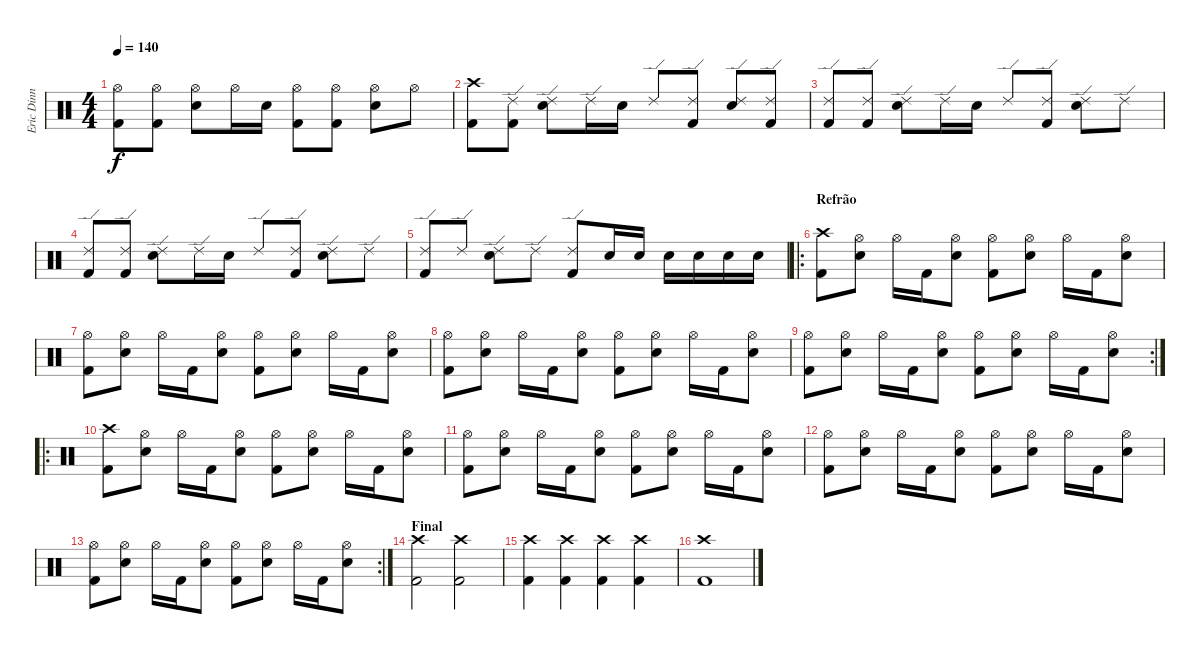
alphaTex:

\track ("Eric Dinn" "Eric Dinn") {instrument percussion}
\staff {score}
\articulation defaults
\ts (4 4)
\tempo 140
\clef neutral
\ks c
("Hi-Hat (open)" "Kick (hit) 2").8{dy f} ("Hi-Hat (open)" "Kick (hit) 2").8 ("Hi-Hat (open)" "Snare (hit) 2").8 "Hi-Hat (open)".16 "Snare (hit) 2".16 ("Hi-Hat (open)" "Kick (hit) 2").8 ("Hi-Hat (open)" "Kick (hit) 2").8 ("Hi-Hat (open)" "Snare (hit) 2").8 "Hi-Hat (open)".8 |
("Crash high (hit)" "Kick (hit) 2").8 ("Ride (edge) 2" "Kick (hit) 2").8 ("Ride (edge) 2" "Snare (hit) 2").8 "Ride (edge) 2".16 "Snare (hit) 2".16 "Ride (edge) 2".8 ("Ride (edge) 2" "Kick (hit) 2").8 ("Ride (edge) 2" "Snare (hit) 2").8 ("Ride (edge) 2" "Kick (hit) 2").8 |
("Ride (edge) 2" "Kick (hit) 2").8 ("Ride (edge) 2" "Kick (hit) 2").8 ("Ride (edge) 2" "Snare (hit) 2").8 "Ride (edge) 2".16 "Snare (hit) 2".16 "Ride (edge) 2".8 ("Ride (edge) 2" "Kick (hit) 2").8 ("Ride (edge) 2" "Snare (hit) 2").8 "Ride (edge) 2".8 |
("Ride (edge) 2" "Kick (hit) 2").8 ("Ride (edge) 2" "Kick (hit) 2").8 ("Ride (edge) 2" "Snare (hit) 2").8 "Ride (edge) 2".16 "Snare (hit) 2".16 "Ride (edge) 2".8 ("Ride (edge) 2" "Kick (hit) 2").8 ("Ride (edge) 2" "Snare (hit) 2").8 "Ride (edge) 2".8 |
("Ride (edge) 2" "Kick (hit) 2").8 "Ride (edge) 2".8 ("Ride (edge) 2" "Snare (hit) 2").8 "Ride (edge) 2".8 ("Ride (edge) 2" "Kick (hit) 2").8 "Snare (hit) 2".16 "Snare (hit) 2".16 "Snare (hit) 2".16 "Snare (hit) 2".16 "Snare (hit) 2".16 "Snare (hit) 2".16 |
\ro
\section ("" "Refrão")
("Crash high (hit)" "Kick (hit) 2").8 ("Hi-Hat (open)" "Snare (hit) 2").8 "Hi-Hat (open)".16 "Kick (hit) 2".16 ("Hi-Hat (open)" "Snare (hit) 2").8 ("Hi-Hat (open)" "Kick (hit) 2").8 ("Hi-Hat (open)" "Snare (hit) 2").8 "Hi-Hat (open)".16 "Kick (hit) 2".16 ("Hi-Hat (open)" "Snare (hit) 2").8 |
("Hi-Hat (open)" "Kick (hit) 2").8 ("Hi-Hat (open)" "Snare (hit) 2").8 "Hi-Hat (open)".16 "Kick (hit) 2".16 ("Hi-Hat (open)" "Snare (hit) 2").8 ("Hi-Hat (open)" "Kick (hit) 2").8 ("Hi-Hat (open)" "Snare (hit) 2").8 "Hi-Hat (open)".16 "Kick (hit) 2".16 ("Hi-Hat (open)" "Snare (hit) 2").8 |
("Hi-Hat (open)" "Kick (hit) 2").8 ("Hi-Hat (open)" "Snare (hit) 2").8 "Hi-Hat (open)".16 "Kick (hit) 2".16 ("Hi-Hat (open)" "Snare (hit) 2").8 ("Hi-Hat (open)" "Kick (hit) 2").8 ("Hi-Hat (open)" "Snare (hit) 2").8 "Hi-Hat (open)".16 "Kick (hit) 2".16 ("Hi-Hat (open)" "Snare (hit) 2").8 |
\rc 2
("Hi-Hat (open)" "Kick (hit) 2").8 ("Hi-Hat (open)" "Snare (hit) 2").8 "Hi-Hat (open)".16 "Kick (hit) 2".16 ("Hi-Hat (open)" "Snare (hit) 2").8 ("Hi-Hat (open)" "Kick (hit) 2").8 ("Hi-Hat (open)" "Snare (hit) 2").8 "Hi-Hat (open)".16 "Kick (hit) 2".16 ("Hi-Hat (open)" "Snare (hit) 2").8 |
\ro
("Crash high (hit)" "Kick (hit) 2").8 ("Hi-Hat (open)" "Snare (hit) 2").8 "Hi-Hat (open)".16 "Kick (hit) 2".16 ("Hi-Hat (open)" "Snare (hit) 2").8 ("Hi-Hat (open)" "Kick (hit) 2").8 ("Hi-Hat (open)" "Snare (hit) 2").8 "Hi-Hat (open)".16 "Kick (hit) 2".16 ("Hi-Hat (open)" "Snare (hit) 2").8 |
("Hi-Hat (open)" "Kick (hit) 2").8 ("Hi-Hat (open)" "Snare (hit) 2").8 "Hi-Hat (open)".16 "Kick (hit) 2".16 ("Hi-Hat (open)" "Snare (hit) 2").8 ("Hi-Hat (open)" "Kick (hit) 2").8 ("Hi-Hat (open)" "Snare (hit) 2").8 "Hi-Hat (open)".16 "Kick (hit) 2".16 ("Hi-Hat (open)" "Snare (hit) 2").8 |
("Hi-Hat (open)" "Kick (hit) 2").8 ("Hi-Hat (open)" "Snare (hit) 2").8 "Hi-Hat (open)".16 "Kick (hit) 2".16 ("Hi-Hat (open)" "Snare (hit) 2").8 ("Hi-Hat (open)" "Kick (hit) 2").8 ("Hi-Hat (open)" "Snare (hit) 2").8 "Hi-Hat (open)".16 "Kick (hit) 2".16 ("Hi-Hat (open)" "Snare (hit) 2").8 |
\rc 2
("Hi-Hat (open)" "Kick (hit) 2").8 ("Hi-Hat (open)" "Snare (hit) 2").8 "Hi-Hat (open)".16 "Kick (hit) 2".16 ("Hi-Hat (open)" "Snare (hit) 2").8 ("Hi-Hat (open)" "Kick (hit) 2").8 ("Hi-Hat (open)" "Snare (hit) 2").8 "Hi-Hat (open)".16 "Kick (hit) 2".16 ("Hi-Hat (open)" "Snare (hit) 2").8 |
\section ("" "Final")
("Crash high (hit)" "Kick (hit) 2").2 ("Crash high (hit)" "Kick (hit) 2").2 |
("Crash high (hit)" "Kick (hit) 2").4 ("Crash high (hit)" "Kick (hit) 2").4 ("Crash high (hit)" "Kick (hit) 2").4 ("Crash high (hit)" "Kick (hit) 2").4 |
("Crash high (hit)" "Kick (hit) 2").1
